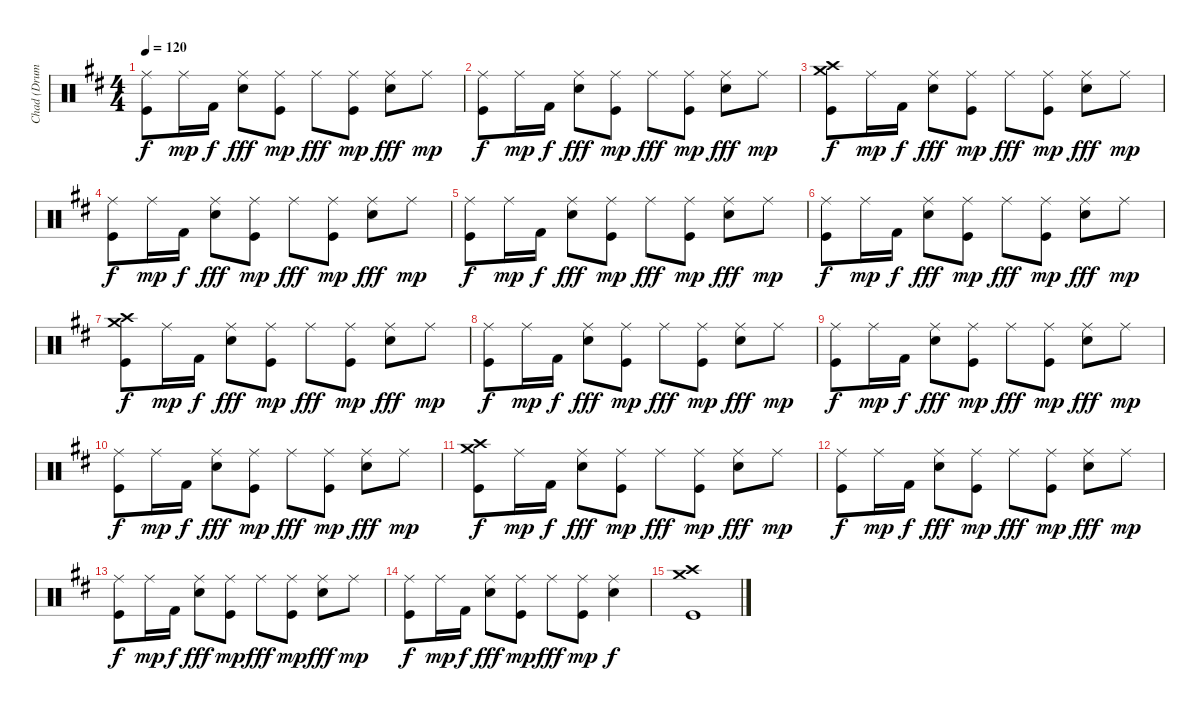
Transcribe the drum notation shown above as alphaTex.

\track ("Chad (Drums)" "Chad (Drum") {instrument percussion}
\staff {score}
\articulation defaults
\ts (4 4)
\tempo 120
\clef neutral
\ks d
("Ride (middle)" "Kick (hit)").8{dy f} "Ride (middle)".16{dy mp} "Kick (hit) 2".16{dy f} ("Ride (middle)" "Snare (hit) 2").8{dy fff} ("Ride (middle)" "Kick (hit)").8{dy mp} "Ride (middle)".8{dy fff} ("Ride (middle)" "Kick (hit)").8{dy mp} ("Ride (middle)" "Snare (hit) 2").8{dy fff} "Ride (middle)".8{dy mp} |
("Ride (middle)" "Kick (hit)").8{dy f} "Ride (middle)".16{dy mp} "Kick (hit) 2".16{dy f} ("Ride (middle)" "Snare (hit) 2").8{dy fff} ("Ride (middle)" "Kick (hit)").8{dy mp} "Ride (middle)".8{dy fff} ("Ride (middle)" "Kick (hit)").8{dy mp} ("Ride (middle)" "Snare (hit) 2").8{dy fff} "Ride (middle)".8{dy mp} |
("Crash high (hit)" "Crash medium (hit)" "Kick (hit)").8{dy f} "Ride (middle)".16{dy mp} "Kick (hit) 2".16{dy f} ("Ride (middle)" "Snare (hit) 2").8{dy fff} ("Ride (middle)" "Kick (hit)").8{dy mp} "Ride (middle)".8{dy fff} ("Ride (middle)" "Kick (hit)").8{dy mp} ("Ride (middle)" "Snare (hit) 2").8{dy fff} "Ride (middle)".8{dy mp} |
("Ride (middle)" "Kick (hit)").8{dy f} "Ride (middle)".16{dy mp} "Kick (hit) 2".16{dy f} ("Ride (middle)" "Snare (hit) 2").8{dy fff} ("Ride (middle)" "Kick (hit)").8{dy mp} "Ride (middle)".8{dy fff} ("Ride (middle)" "Kick (hit)").8{dy mp} ("Ride (middle)" "Snare (hit) 2").8{dy fff} "Ride (middle)".8{dy mp} |
("Ride (middle)" "Kick (hit)").8{dy f} "Ride (middle)".16{dy mp} "Kick (hit) 2".16{dy f} ("Ride (middle)" "Snare (hit) 2").8{dy fff} ("Ride (middle)" "Kick (hit)").8{dy mp} "Ride (middle)".8{dy fff} ("Ride (middle)" "Kick (hit)").8{dy mp} ("Ride (middle)" "Snare (hit) 2").8{dy fff} "Ride (middle)".8{dy mp} |
("Ride (middle)" "Kick (hit)").8{dy f} "Ride (middle)".16{dy mp} "Kick (hit) 2".16{dy f} ("Ride (middle)" "Snare (hit) 2").8{dy fff} ("Ride (middle)" "Kick (hit)").8{dy mp} "Ride (middle)".8{dy fff} ("Ride (middle)" "Kick (hit)").8{dy mp} ("Ride (middle)" "Snare (hit) 2").8{dy fff} "Ride (middle)".8{dy mp} |
("Crash high (hit)" "Crash medium (hit)" "Kick (hit)").8{dy f} "Ride (middle)".16{dy mp} "Kick (hit) 2".16{dy f} ("Ride (middle)" "Snare (hit) 2").8{dy fff} ("Ride (middle)" "Kick (hit)").8{dy mp} "Ride (middle)".8{dy fff} ("Ride (middle)" "Kick (hit)").8{dy mp} ("Ride (middle)" "Snare (hit) 2").8{dy fff} "Ride (middle)".8{dy mp} |
("Ride (middle)" "Kick (hit)").8{dy f} "Ride (middle)".16{dy mp} "Kick (hit) 2".16{dy f} ("Ride (middle)" "Snare (hit) 2").8{dy fff} ("Ride (middle)" "Kick (hit)").8{dy mp} "Ride (middle)".8{dy fff} ("Ride (middle)" "Kick (hit)").8{dy mp} ("Ride (middle)" "Snare (hit) 2").8{dy fff} "Ride (middle)".8{dy mp} |
("Ride (middle)" "Kick (hit)").8{dy f} "Ride (middle)".16{dy mp} "Kick (hit) 2".16{dy f} ("Ride (middle)" "Snare (hit) 2").8{dy fff} ("Ride (middle)" "Kick (hit)").8{dy mp} "Ride (middle)".8{dy fff} ("Ride (middle)" "Kick (hit)").8{dy mp} ("Ride (middle)" "Snare (hit) 2").8{dy fff} "Ride (middle)".8{dy mp} |
("Ride (middle)" "Kick (hit)").8{dy f} "Ride (middle)".16{dy mp} "Kick (hit) 2".16{dy f} ("Ride (middle)" "Snare (hit) 2").8{dy fff} ("Ride (middle)" "Kick (hit)").8{dy mp} "Ride (middle)".8{dy fff} ("Ride (middle)" "Kick (hit)").8{dy mp} ("Ride (middle)" "Snare (hit) 2").8{dy fff} "Ride (middle)".8{dy mp} |
("Crash high (hit)" "Crash medium (hit)" "Kick (hit)").8{dy f} "Ride (middle)".16{dy mp} "Kick (hit) 2".16{dy f} ("Ride (middle)" "Snare (hit) 2").8{dy fff} ("Ride (middle)" "Kick (hit)").8{dy mp} "Ride (middle)".8{dy fff} ("Ride (middle)" "Kick (hit)").8{dy mp} ("Ride (middle)" "Snare (hit) 2").8{dy fff} "Ride (middle)".8{dy mp} |
("Ride (middle)" "Kick (hit)").8{dy f} "Ride (middle)".16{dy mp} "Kick (hit) 2".16{dy f} ("Ride (middle)" "Snare (hit) 2").8{dy fff} ("Ride (middle)" "Kick (hit)").8{dy mp} "Ride (middle)".8{dy fff} ("Ride (middle)" "Kick (hit)").8{dy mp} ("Ride (middle)" "Snare (hit) 2").8{dy fff} "Ride (middle)".8{dy mp} |
("Ride (middle)" "Kick (hit)").8{dy f} "Ride (middle)".16{dy mp} "Kick (hit) 2".16{dy f} ("Ride (middle)" "Snare (hit) 2").8{dy fff} ("Ride (middle)" "Kick (hit)").8{dy mp} "Ride (middle)".8{dy fff} ("Ride (middle)" "Kick (hit)").8{dy mp} ("Ride (middle)" "Snare (hit) 2").8{dy fff} "Ride (middle)".8{dy mp} |
("Ride (middle)" "Kick (hit)").8{dy f} "Ride (middle)".16{dy mp} "Kick (hit) 2".16{dy f} ("Ride (middle)" "Snare (hit) 2").8{dy fff} ("Ride (middle)" "Kick (hit)").8{dy mp} "Ride (middle)".8{dy fff} ("Ride (middle)" "Kick (hit)").8{dy mp} ("Ride (middle)" "Snare (hit) 2").4{dy f} |
("Crash medium (hit)" "Crash high (hit)" "Kick (hit)").1
